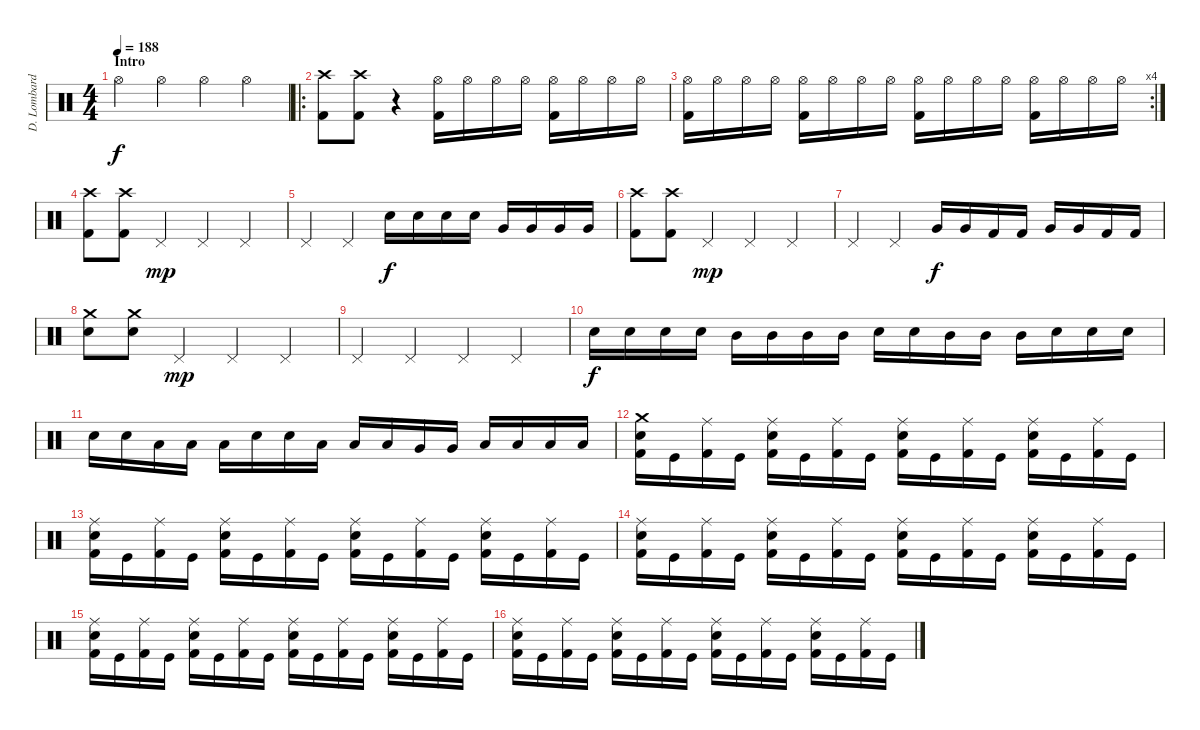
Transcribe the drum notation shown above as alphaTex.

\track ("D. Lombardo" "D. Lombard") {instrument percussion}
\staff {score}
\articulation defaults
\ts (4 4)
\section ("" "Intro")
\tempo 188
\clef neutral
\ks c "Hi-Hat (open)".4{dy f} "Hi-Hat (open)".4 "Hi-Hat (open)".4 "Hi-Hat (open)".4
|
\ro
("Crash high (hit)" "Kick (hit) 2").8 ("Crash high (hit)" "Kick (hit) 2").8 r.4 ("Hi-Hat (open)" "Kick (hit) 2").16 "Hi-Hat (open)".16 "Hi-Hat (open)".16 "Hi-Hat (open)".16 ("Hi-Hat (open)" "Kick (hit) 2").16 "Hi-Hat (open)".16 "Hi-Hat (open)".16 "Hi-Hat (open)".16 |
\rc 4
("Hi-Hat (open)" "Kick (hit) 2").16 "Hi-Hat (open)".16 "Hi-Hat (open)".16 "Hi-Hat (open)".16 ("Hi-Hat (open)" "Kick (hit) 2").16 "Hi-Hat (open)".16 "Hi-Hat (open)".16 "Hi-Hat (open)".16 ("Hi-Hat (open)" "Kick (hit) 2").16 "Hi-Hat (open)".16 "Hi-Hat (open)".16 "Hi-Hat (open)".16 ("Hi-Hat (open)" "Kick (hit) 2").16 "Hi-Hat (open)".16 "Hi-Hat (open)".16 "Hi-Hat (open)".16 |
("Crash high (hit)" "Kick (hit) 2").8 ("Crash high (hit)" "Kick (hit) 2").8 "Pedal Hi-Hat (hit)".4{dy mp} "Pedal Hi-Hat (hit)".4 "Pedal Hi-Hat (hit)".4 |
"Pedal Hi-Hat (hit)".4 "Pedal Hi-Hat (hit)".4 "Electric Snare (hit)".16{dy f} "Electric Snare (hit)".16 "Electric Snare (hit)".16 "Electric Snare (hit)".16 "Very Low Tom (hit)".16 "Very Low Tom (hit)".16 "Very Low Tom (hit)".16 "Very Low Tom (hit)".16 |
("Crash high (hit)" "Kick (hit) 2").8 ("Crash high (hit)" "Kick (hit) 2").8 "Pedal Hi-Hat (hit)".4{dy mp} "Pedal Hi-Hat (hit)".4 "Pedal Hi-Hat (hit)".4 |
"Pedal Hi-Hat (hit)".4 "Pedal Hi-Hat (hit)".4 "Very Low Tom (hit)".16{dy f} "Very Low Tom (hit)".16 "Kick (hit) 2".16 "Kick (hit) 2".16 "Very Low Tom (hit)".16 "Very Low Tom (hit)".16 "Kick (hit) 2".16 "Kick (hit) 2".16 |
("Crash medium (hit)" "Electric Snare (hit)").8 ("Crash medium (hit)" "Electric Snare (hit)").8 "Pedal Hi-Hat (hit)".4{dy mp} "Pedal Hi-Hat (hit)".4 "Pedal Hi-Hat (hit)".4 |
"Pedal Hi-Hat (hit)".4 "Pedal Hi-Hat (hit)".4 "Pedal Hi-Hat (hit)".4 "Pedal Hi-Hat (hit)".4 |
"Electric Snare (hit)".16{dy f} "Electric Snare (hit)".16 "Electric Snare (hit)".16 "Electric Snare (hit)".16 "Mid Tom (hit)".16 "Mid Tom (hit)".16 "Mid Tom (hit)".16 "Mid Tom (hit)".16 "Electric Snare (hit)".16 "Electric Snare (hit)".16 "Mid Tom (hit)".16 "Mid Tom (hit)".16 "Mid Tom (hit)".16 "Electric Snare (hit)".16 "Electric Snare (hit)".16 "Electric Snare (hit)".16 |
"Electric Snare (hit)".16 "Electric Snare (hit)".16 "Low Tom (hit)".16 "Low Tom (hit)".16 "Low Tom (hit)".16 "Electric Snare (hit)".16 "Electric Snare (hit)".16 "Low Tom (hit)".16 "Low Tom (hit)".16 "Low Tom (hit)".16 "Very Low Tom (hit)".16 "Very Low Tom (hit)".16 "Low Floor Tom (hit)".16 "Low Floor Tom (hit)".16 "Low Floor Tom (hit)".16 "Low Floor Tom (hit)".16 |
("Crash medium (hit)" "Electric Snare (hit)" "Kick (hit) 2").16 "Kick (hit)".16 ("Ride (middle)" "Kick (hit) 2").16 "Kick (hit)".16 ("Ride (middle)" "Electric Snare (hit)" "Kick (hit) 2").16 "Kick (hit)".16 ("Ride (middle)" "Kick (hit) 2").16 "Kick (hit)".16 ("Ride (middle)" "Electric Snare (hit)" "Kick (hit) 2").16 "Kick (hit)".16 ("Ride (middle)" "Kick (hit) 2").16 "Kick (hit)".16 ("Ride (middle)" "Electric Snare (hit)" "Kick (hit) 2").16 "Kick (hit)".16 ("Ride (middle)" "Kick (hit) 2").16 "Kick (hit)".16 |
("Ride (middle)" "Electric Snare (hit)" "Kick (hit) 2").16 "Kick (hit)".16 ("Ride (middle)" "Kick (hit) 2").16 "Kick (hit)".16 ("Ride (middle)" "Electric Snare (hit)" "Kick (hit) 2").16 "Kick (hit)".16 ("Ride (middle)" "Kick (hit) 2").16 "Kick (hit)".16 ("Ride (middle)" "Electric Snare (hit)" "Kick (hit) 2").16 "Kick (hit)".16 ("Ride (middle)" "Kick (hit) 2").16 "Kick (hit)".16 ("Ride (middle)" "Electric Snare (hit)" "Kick (hit) 2").16 "Kick (hit)".16 ("Ride (middle)" "Kick (hit) 2").16 "Kick (hit)".16 |
("Ride (middle)" "Electric Snare (hit)" "Kick (hit) 2").16 "Kick (hit)".16 ("Ride (middle)" "Kick (hit) 2").16 "Kick (hit)".16 ("Ride (middle)" "Electric Snare (hit)" "Kick (hit) 2").16 "Kick (hit)".16 ("Ride (middle)" "Kick (hit) 2").16 "Kick (hit)".16 ("Ride (middle)" "Electric Snare (hit)" "Kick (hit) 2").16 "Kick (hit)".16 ("Ride (middle)" "Kick (hit) 2").16 "Kick (hit)".16 ("Ride (middle)" "Electric Snare (hit)" "Kick (hit) 2").16 "Kick (hit)".16 ("Ride (middle)" "Kick (hit) 2").16 "Kick (hit)".16 |
("Ride (middle)" "Electric Snare (hit)" "Kick (hit) 2").16 "Kick (hit)".16 ("Ride (middle)" "Kick (hit) 2").16 "Kick (hit)".16 ("Ride (middle)" "Electric Snare (hit)" "Kick (hit) 2").16 "Kick (hit)".16 ("Ride (middle)" "Kick (hit) 2").16 "Kick (hit)".16 ("Ride (middle)" "Electric Snare (hit)" "Kick (hit) 2").16 "Kick (hit)".16 ("Ride (middle)" "Kick (hit) 2").16 "Kick (hit)".16 ("Ride (middle)" "Electric Snare (hit)" "Kick (hit) 2").16 "Kick (hit)".16 ("Ride (middle)" "Kick (hit) 2").16 "Kick (hit)".16 |
("Ride (middle)" "Electric Snare (hit)" "Kick (hit) 2").16 "Kick (hit)".16 ("Ride (middle)" "Kick (hit) 2").16 "Kick (hit)".16 ("Ride (middle)" "Electric Snare (hit)" "Kick (hit) 2").16 "Kick (hit)".16 ("Ride (middle)" "Kick (hit) 2").16 "Kick (hit)".16 ("Ride (middle)" "Electric Snare (hit)" "Kick (hit) 2").16 "Kick (hit)".16 ("Ride (middle)" "Kick (hit) 2").16 "Kick (hit)".16 ("Ride (middle)" "Electric Snare (hit)" "Kick (hit) 2").16 "Kick (hit)".16 ("Ride (middle)" "Kick (hit) 2").16 "Kick (hit)".16
